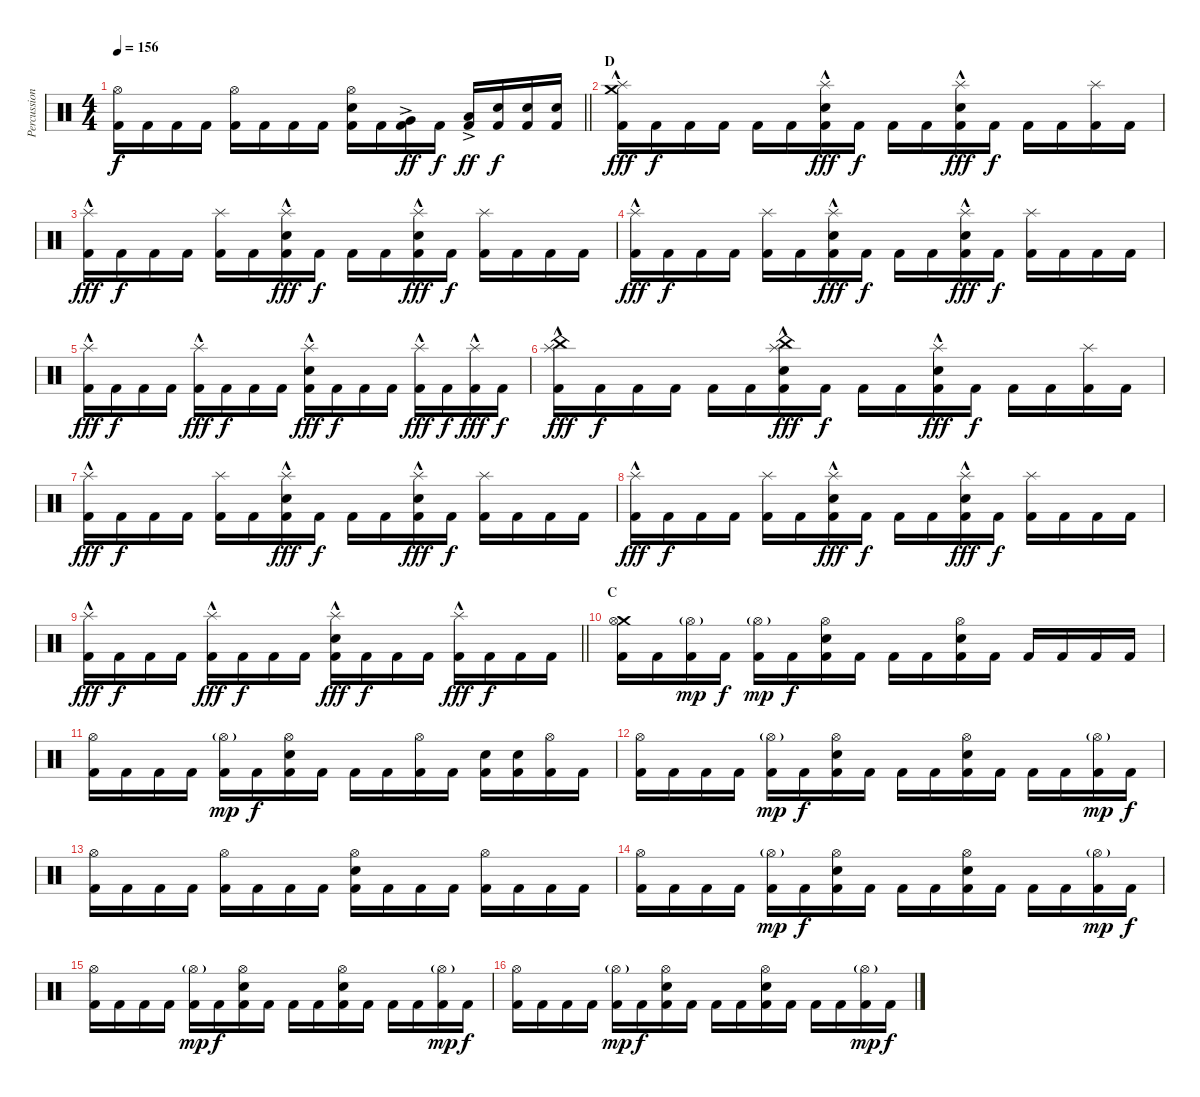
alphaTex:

\track ("Percussion" "Percussion") {instrument percussion}
\staff {score}
\articulation defaults
\ts (4 4)
\tempo 156
\clef neutral
\barLineRight lightlight
\ks c
("Hi-Hat (open)" "Kick (hit) 2").16{dy f} "Kick (hit) 2".16 "Kick (hit) 2".16 "Kick (hit) 2".16 ("Hi-Hat (open)" "Kick (hit) 2").16 "Kick (hit) 2".16 "Kick (hit) 2".16 "Kick (hit) 2".16 ("Hi-Hat (open)" "Electric Snare (hit)" "Kick (hit) 2").16 "Kick (hit) 2".16 ("Very Low Tom (hit)"{ac} "Kick (hit) 2").16{dy ff} "Kick (hit) 2".16{dy f} ("Low Floor Tom (hit)"{ac} "Kick (hit) 2").16{dy ff} ("Electric Snare (hit)" "Kick (hit) 2").16{dy f} ("Electric Snare (hit)" "Kick (hit) 2").16 ("Electric Snare (hit)" "Kick (hit) 2").16 |
\section ("" "D")
("Crash medium (hit)" "Splash (hit)"{hac} "Kick (hit) 2").16{dy fff} "Kick (hit) 2".16{dy f} "Kick (hit) 2".16 "Kick (hit) 2".16 "Kick (hit) 2".16 "Kick (hit) 2".16 ("Splash (hit)"{hac} "Electric Snare (hit)" "Kick (hit) 2").16{dy fff} "Kick (hit) 2".16{dy f} "Kick (hit) 2".16 "Kick (hit) 2".16 ("Splash (hit)"{hac} "Electric Snare (hit)" "Kick (hit) 2").16{dy fff} "Kick (hit) 2".16{dy f} "Kick (hit) 2".16 "Kick (hit) 2".16 ("Splash (hit)" "Kick (hit) 2").16 "Kick (hit) 2".16 |
("Splash (hit)"{hac} "Kick (hit) 2").16{dy fff} "Kick (hit) 2".16{dy f} "Kick (hit) 2".16 "Kick (hit) 2".16 ("Splash (hit)" "Kick (hit) 2").16 "Kick (hit) 2".16 ("Splash (hit)"{hac} "Electric Snare (hit)" "Kick (hit) 2").16{dy fff} "Kick (hit) 2".16{dy f} "Kick (hit) 2".16 "Kick (hit) 2".16 ("Splash (hit)"{hac} "Electric Snare (hit)" "Kick (hit) 2").16{dy fff} "Kick (hit) 2".16{dy f} ("Splash (hit)" "Kick (hit) 2").16 "Kick (hit) 2".16 "Kick (hit) 2".16 "Kick (hit) 2".16 |
("Splash (hit)"{hac} "Kick (hit) 2").16{dy fff} "Kick (hit) 2".16{dy f} "Kick (hit) 2".16 "Kick (hit) 2".16 ("Splash (hit)" "Kick (hit) 2").16 "Kick (hit) 2".16 ("Splash (hit)"{hac} "Electric Snare (hit)" "Kick (hit) 2").16{dy fff} "Kick (hit) 2".16{dy f} "Kick (hit) 2".16 "Kick (hit) 2".16 ("Splash (hit)"{hac} "Electric Snare (hit)" "Kick (hit) 2").16{dy fff} "Kick (hit) 2".16{dy f} ("Splash (hit)" "Kick (hit) 2").16 "Kick (hit) 2".16 "Kick (hit) 2".16 "Kick (hit) 2".16 |
("Splash (hit)"{hac} "Kick (hit) 2").16{dy fff} "Kick (hit) 2".16{dy f} "Kick (hit) 2".16 "Kick (hit) 2".16 ("Splash (hit)"{hac} "Kick (hit) 2").16{dy fff} "Kick (hit) 2".16{dy f} "Kick (hit) 2".16 "Kick (hit) 2".16 ("Splash (hit)"{hac} "Electric Snare (hit)" "Kick (hit) 2").16{dy fff} "Kick (hit) 2".16{dy f} "Kick (hit) 2".16 "Kick (hit) 2".16 ("Splash (hit)"{hac} "Kick (hit) 2").16{dy fff} "Kick (hit) 2".16{dy f} ("Splash (hit)"{hac} "Kick (hit) 2").16{dy fff} "Kick (hit) 2".16{dy f} |
("China (hit)" "Splash (hit)"{hac} "Kick (hit) 2").16{dy fff} "Kick (hit) 2".16{dy f} "Kick (hit) 2".16 "Kick (hit) 2".16 "Kick (hit) 2".16 "Kick (hit) 2".16 ("China (hit)" "Splash (hit)"{hac} "Electric Snare (hit)" "Kick (hit) 2").16{dy fff} "Kick (hit) 2".16{dy f} "Kick (hit) 2".16 "Kick (hit) 2".16 ("Splash (hit)"{hac} "Electric Snare (hit)" "Kick (hit) 2").16{dy fff} "Kick (hit) 2".16{dy f} "Kick (hit) 2".16 "Kick (hit) 2".16 ("Splash (hit)" "Kick (hit) 2").16 "Kick (hit) 2".16 |
("Splash (hit)"{hac} "Kick (hit) 2").16{dy fff} "Kick (hit) 2".16{dy f} "Kick (hit) 2".16 "Kick (hit) 2".16 ("Splash (hit)" "Kick (hit) 2").16 "Kick (hit) 2".16 ("Splash (hit)"{hac} "Electric Snare (hit)" "Kick (hit) 2").16{dy fff} "Kick (hit) 2".16{dy f} "Kick (hit) 2".16 "Kick (hit) 2".16 ("Splash (hit)"{hac} "Electric Snare (hit)" "Kick (hit) 2").16{dy fff} "Kick (hit) 2".16{dy f} ("Splash (hit)" "Kick (hit) 2").16 "Kick (hit) 2".16 "Kick (hit) 2".16 "Kick (hit) 2".16 |
("Splash (hit)"{hac} "Kick (hit) 2").16{dy fff} "Kick (hit) 2".16{dy f} "Kick (hit) 2".16 "Kick (hit) 2".16 ("Splash (hit)" "Kick (hit) 2").16 "Kick (hit) 2".16 ("Splash (hit)"{hac} "Electric Snare (hit)" "Kick (hit) 2").16{dy fff} "Kick (hit) 2".16{dy f} "Kick (hit) 2".16 "Kick (hit) 2".16 ("Splash (hit)"{hac} "Electric Snare (hit)" "Kick (hit) 2").16{dy fff} "Kick (hit) 2".16{dy f} ("Splash (hit)" "Kick (hit) 2").16 "Kick (hit) 2".16 "Kick (hit) 2".16 "Kick (hit) 2".16 |
\barLineRight lightlight
("Splash (hit)"{hac} "Kick (hit) 2").16{dy fff} "Kick (hit) 2".16{dy f} "Kick (hit) 2".16 "Kick (hit) 2".16 ("Splash (hit)"{hac} "Kick (hit) 2").16{dy fff} "Kick (hit) 2".16{dy f} "Kick (hit) 2".16 "Kick (hit) 2".16 ("Splash (hit)"{hac} "Electric Snare (hit)" "Kick (hit) 2").16{dy fff} "Kick (hit) 2".16{dy f} "Kick (hit) 2".16 "Kick (hit) 2".16 ("Splash (hit)"{hac} "Kick (hit) 2").16{dy fff} "Kick (hit) 2".16{dy f} "Kick (hit) 2".16 "Kick (hit) 2".16 |
\section ("" "C")
("Crash medium (hit)" "Hi-Hat (open)" "Kick (hit) 2").16 "Kick (hit) 2".16 ("Hi-Hat (open)"{g} "Kick (hit) 2").16{dy mp} "Kick (hit) 2".16{dy f} ("Hi-Hat (open)"{g} "Kick (hit) 2").16{dy mp} "Kick (hit) 2".16{dy f} ("Hi-Hat (open)" "Electric Snare (hit)" "Kick (hit) 2").16 "Kick (hit) 2".16 "Kick (hit) 2".16 "Kick (hit) 2".16 ("Hi-Hat (open)" "Electric Snare (hit)" "Kick (hit) 2").16 "Kick (hit) 2".16 "Kick (hit) 2".16 "Kick (hit) 2".16 "Kick (hit) 2".16 "Kick (hit) 2".16 |
("Hi-Hat (open)" "Kick (hit) 2").16 "Kick (hit) 2".16 "Kick (hit) 2".16 "Kick (hit) 2".16 ("Hi-Hat (open)"{g} "Kick (hit) 2").16{dy mp} "Kick (hit) 2".16{dy f} ("Hi-Hat (open)" "Electric Snare (hit)" "Kick (hit) 2").16 "Kick (hit) 2".16 "Kick (hit) 2".16 "Kick (hit) 2".16 ("Hi-Hat (open)" "Kick (hit) 2").16 "Kick (hit) 2".16 ("Electric Snare (hit)" "Kick (hit) 2").16 ("Electric Snare (hit)" "Kick (hit) 2").16 ("Hi-Hat (open)" "Kick (hit) 2").16 "Kick (hit) 2".16 |
("Hi-Hat (open)" "Kick (hit) 2").16 "Kick (hit) 2".16 "Kick (hit) 2".16 "Kick (hit) 2".16 ("Hi-Hat (open)"{g} "Kick (hit) 2").16{dy mp} "Kick (hit) 2".16{dy f} ("Hi-Hat (open)" "Electric Snare (hit)" "Kick (hit) 2").16 "Kick (hit) 2".16 "Kick (hit) 2".16 "Kick (hit) 2".16 ("Hi-Hat (open)" "Electric Snare (hit)" "Kick (hit) 2").16 "Kick (hit) 2".16 "Kick (hit) 2".16 "Kick (hit) 2".16 ("Hi-Hat (open)"{g} "Kick (hit) 2").16{dy mp} "Kick (hit) 2".16{dy f} |
("Hi-Hat (open)" "Kick (hit) 2").16 "Kick (hit) 2".16 "Kick (hit) 2".16 "Kick (hit) 2".16 ("Hi-Hat (open)" "Kick (hit) 2").16 "Kick (hit) 2".16 "Kick (hit) 2".16 "Kick (hit) 2".16 ("Hi-Hat (open)" "Electric Snare (hit)" "Kick (hit) 2").16 "Kick (hit) 2".16 "Kick (hit) 2".16 "Kick (hit) 2".16 ("Hi-Hat (open)" "Kick (hit) 2").16 "Kick (hit) 2".16 "Kick (hit) 2".16 "Kick (hit) 2".16 |
("Hi-Hat (open)" "Kick (hit) 2").16 "Kick (hit) 2".16 "Kick (hit) 2".16 "Kick (hit) 2".16 ("Hi-Hat (open)"{g} "Kick (hit) 2").16{dy mp} "Kick (hit) 2".16{dy f} ("Hi-Hat (open)" "Electric Snare (hit)" "Kick (hit) 2").16 "Kick (hit) 2".16 "Kick (hit) 2".16 "Kick (hit) 2".16 ("Hi-Hat (open)" "Electric Snare (hit)" "Kick (hit) 2").16 "Kick (hit) 2".16 "Kick (hit) 2".16 "Kick (hit) 2".16 ("Hi-Hat (open)"{g} "Kick (hit) 2").16{dy mp} "Kick (hit) 2".16{dy f} |
("Hi-Hat (open)" "Kick (hit) 2").16 "Kick (hit) 2".16 "Kick (hit) 2".16 "Kick (hit) 2".16 ("Hi-Hat (open)"{g} "Kick (hit) 2").16{dy mp} "Kick (hit) 2".16{dy f} ("Hi-Hat (open)" "Electric Snare (hit)" "Kick (hit) 2").16 "Kick (hit) 2".16 "Kick (hit) 2".16 "Kick (hit) 2".16 ("Hi-Hat (open)" "Electric Snare (hit)" "Kick (hit) 2").16 "Kick (hit) 2".16 "Kick (hit) 2".16 "Kick (hit) 2".16 ("Hi-Hat (open)"{g} "Kick (hit) 2").16{dy mp} "Kick (hit) 2".16{dy f} |
("Hi-Hat (open)" "Kick (hit) 2").16 "Kick (hit) 2".16 "Kick (hit) 2".16 "Kick (hit) 2".16 ("Hi-Hat (open)"{g} "Kick (hit) 2").16{dy mp} "Kick (hit) 2".16{dy f} ("Hi-Hat (open)" "Electric Snare (hit)" "Kick (hit) 2").16 "Kick (hit) 2".16 "Kick (hit) 2".16 "Kick (hit) 2".16 ("Hi-Hat (open)" "Electric Snare (hit)" "Kick (hit) 2").16 "Kick (hit) 2".16 "Kick (hit) 2".16 "Kick (hit) 2".16 ("Hi-Hat (open)"{g} "Kick (hit) 2").16{dy mp} "Kick (hit) 2".16{dy f}
